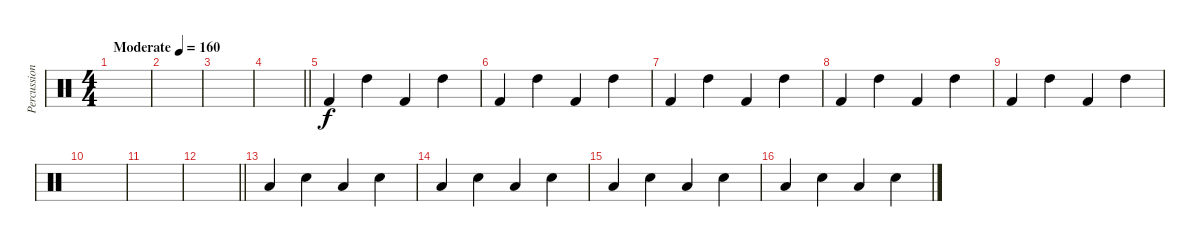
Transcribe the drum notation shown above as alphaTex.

\track ("Percussion" "Percussion") {instrument percussion}
\staff {score}
\articulation defaults
\ts (4 4)
\tempo (160 "Moderate")
\clef neutral
\ks c
|
|
|
\barLineRight lightlight
|
"Kick (hit) 2".4 "High Tom (hit)".4 "Kick (hit) 2".4 "High Tom (hit)".4 |
"Kick (hit) 2".4 "High Tom (hit)".4 "Kick (hit) 2".4 "High Tom (hit)".4 |
"Kick (hit) 2".4 "High Tom (hit)".4 "Kick (hit) 2".4 "High Tom (hit)".4 |
"Kick (hit) 2".4 "High Tom (hit)".4 "Kick (hit) 2".4 "High Tom (hit)".4 |
"Kick (hit) 2".4 "High Tom (hit)".4 "Kick (hit) 2".4 "High Tom (hit)".4 |
|
|
\barLineRight lightlight
|
"Low Tom (hit)".4 "Hand Clap (hit)".4 "Low Tom (hit)".4 "Hand Clap (hit)".4 |
"Low Tom (hit)".4 "Hand Clap (hit)".4 "Low Tom (hit)".4 "Hand Clap (hit)".4 |
"Low Tom (hit)".4 "Hand Clap (hit)".4 "Low Tom (hit)".4 "Hand Clap (hit)".4 |
"Low Tom (hit)".4 "Hand Clap (hit)".4 "Low Tom (hit)".4 "Hand Clap (hit)".4
